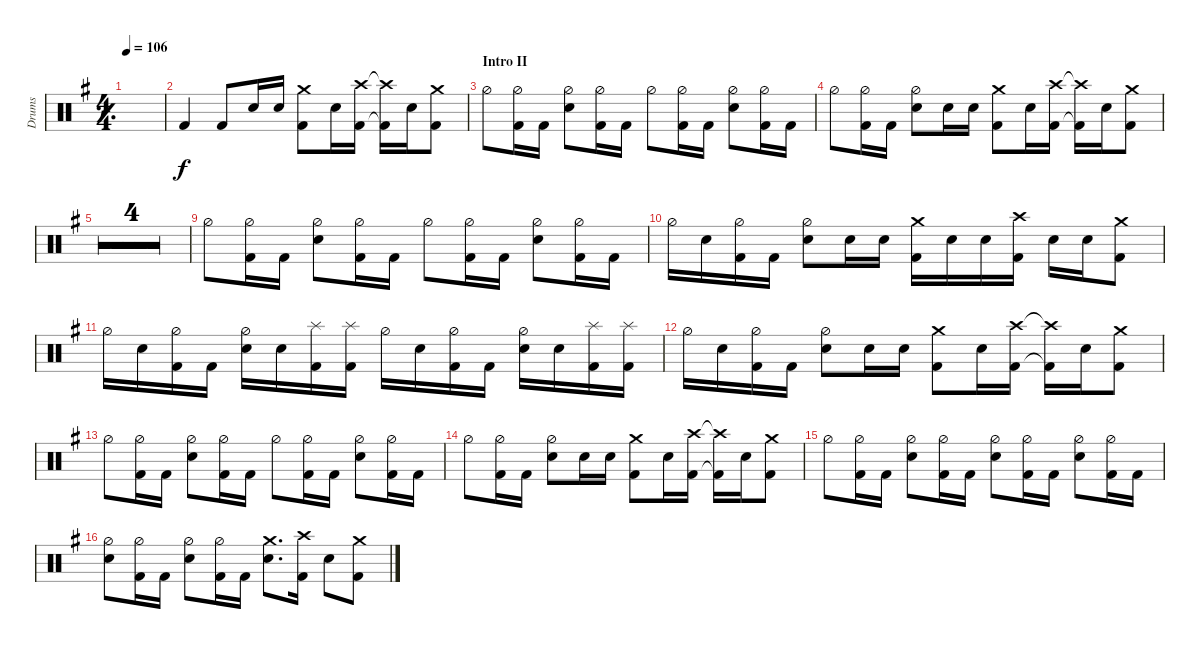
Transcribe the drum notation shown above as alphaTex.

\defaultSystemsLayout 4
\bracketExtendMode groupsimilarinstruments
\otherSystemsTrackNameOrientation horizontal
\track ("Drumkit" "Drums") {multiBarRest instrument percussion}
\staff {score}
\articulation defaults
\ts (4 4)
\tempo 106
\clef neutral
\simile simple
\ks g
|
\simile none "Kick (hit) 2"{acc forcenatural}.4 "Kick (hit) 2"{acc forcenatural}.8 "Snare (hit) 2"{acc forcenatural}.16 "Snare (hit) 2"{acc forcenatural}.16
("Kick (hit) 2"{acc forcenatural} "Crash medium (hit)"{acc forcenatural}).8 "Snare (hit) 2"{acc forcenatural}.16 ("Kick (hit) 2"{acc forcenatural} "Crash high (hit)"{acc forcenatural}).16 ("Kick (hit) 2"{t acc forcenatural} "Crash high (hit)"{t acc forcenatural}).16 "Snare (hit) 2"{acc forcenatural}.16 ("Kick (hit) 2"{acc forcenatural} "Crash medium (hit)"{acc forcenatural}).8 |
\section ("" "Intro II")
"Hi-Hat (half)"{acc forcenatural}.8 ("Hi-Hat (half)"{acc forcenatural} "Kick (hit) 2"{acc forcenatural}).16 "Kick (hit) 2"{acc forcenatural}.16 ("Snare (hit) 2"{acc forcenatural} "Hi-Hat (half)"{acc forcenatural}).8 ("Hi-Hat (half)"{acc forcenatural} "Kick (hit) 2"{acc forcenatural}).16 "Kick (hit) 2"{acc forcenatural}.16 "Hi-Hat (half)"{acc forcenatural}.8 ("Hi-Hat (half)"{acc forcenatural} "Kick (hit) 2"{acc forcenatural}).16 "Kick (hit) 2"{acc forcenatural}.16 ("Snare (hit) 2"{acc forcenatural} "Hi-Hat (half)"{acc forcenatural}).8 ("Hi-Hat (half)"{acc forcenatural} "Kick (hit) 2"{acc forcenatural}).16 "Kick (hit) 2"{acc forcenatural}.16 |
"Hi-Hat (half)"{acc forcenatural}.8 ("Hi-Hat (half)"{acc forcenatural} "Kick (hit) 2"{acc forcenatural}).16 "Kick (hit) 2"{acc forcenatural}.16 ("Snare (hit) 2"{acc forcenatural} "Hi-Hat (half)"{acc forcenatural}).8 "Snare (hit) 2"{acc forcenatural}.16 "Snare (hit) 2"{acc forcenatural}.16 ("Kick (hit) 2"{acc forcenatural} "Crash medium (hit)"{acc forcenatural}).8 "Snare (hit) 2"{acc forcenatural}.16 ("Kick (hit) 2"{acc forcenatural} "Crash high (hit)"{acc forcenatural}).16 ("Kick (hit) 2"{t acc forcenatural} "Crash high (hit)"{t acc forcenatural}).16 "Snare (hit) 2"{acc forcenatural}.16 ("Kick (hit) 2"{acc forcenatural} "Crash medium (hit)"{acc forcenatural}).8 |
\simile firstofdouble
|
\simile secondofdouble
|
\simile firstofdouble
|
\simile secondofdouble
|
\simile none "Hi-Hat (half)"{acc forcenatural}.8
("Hi-Hat (half)"{acc forcenatural} "Kick (hit) 2"{acc forcenatural}).16 "Kick (hit) 2"{acc forcenatural}.16 ("Snare (hit) 2"{acc forcenatural} "Hi-Hat (half)"{acc forcenatural}).8 ("Hi-Hat (half)"{acc forcenatural} "Kick (hit) 2"{acc forcenatural}).16 "Kick (hit) 2"{acc forcenatural}.16 "Hi-Hat (half)"{acc forcenatural}.8 ("Hi-Hat (half)"{acc forcenatural} "Kick (hit) 2"{acc forcenatural}).16 "Kick (hit) 2"{acc forcenatural}.16 ("Snare (hit) 2"{acc forcenatural} "Hi-Hat (half)"{acc forcenatural}).8 ("Hi-Hat (half)"{acc forcenatural} "Kick (hit) 2"{acc forcenatural}).16 "Kick (hit) 2"{acc forcenatural}.16 |
"Hi-Hat (half)"{acc forcenatural}.16 "Snare (hit) 2"{acc forcenatural}.16 ("Hi-Hat (half)"{acc forcenatural} "Kick (hit) 2"{acc forcenatural}).16 "Kick (hit) 2"{acc forcenatural}.16 ("Snare (hit) 2"{acc forcenatural} "Hi-Hat (half)"{acc forcenatural}).8 "Snare (hit) 2"{acc forcenatural}.16 "Snare (hit) 2"{acc forcenatural}.16 ("Kick (hit) 2"{acc forcenatural} "Crash medium (hit)"{acc forcenatural}).16 "Snare (hit) 2"{acc forcenatural}.16 "Snare (hit) 2"{acc forcenatural}.16 ("Kick (hit) 2"{acc forcenatural} "Crash high (hit)"{acc forcenatural}).16 "Snare (hit) 2"{acc forcenatural}.16 "Snare (hit) 2"{acc forcenatural}.16 ("Kick (hit) 2"{acc forcenatural} "Crash medium (hit)"{acc forcenatural}).8 |
"Hi-Hat (half)"{acc forcenatural}.16 "Snare (hit) 2"{acc forcenatural}.16 ("Hi-Hat (half)"{acc forcenatural} "Kick (hit) 2"{acc forcenatural}).16 "Kick (hit) 2"{acc forcenatural}.16 ("Snare (hit) 2"{acc forcenatural} "Hi-Hat (half)"{acc forcenatural}).16 "Snare (hit) 2"{acc forcenatural}.16 ("Kick (hit) 2"{acc forcenatural} "Splash (hit)"{acc forcenatural}).16 ("Kick (hit) 2"{acc forcenatural} "Splash (hit)"{acc forcenatural}).16 "Hi-Hat (half)"{acc forcenatural}.16 "Snare (hit) 2"{acc forcenatural}.16 ("Hi-Hat (half)"{acc forcenatural} "Kick (hit) 2"{acc forcenatural}).16 "Kick (hit) 2"{acc forcenatural}.16 ("Snare (hit) 2"{acc forcenatural} "Hi-Hat (half)"{acc forcenatural}).16 "Snare (hit) 2"{acc forcenatural}.16 ("Kick (hit) 2"{acc forcenatural} "Splash (hit)"{acc forcenatural}).16 ("Kick (hit) 2"{acc forcenatural} "Splash (hit)"{acc forcenatural}).16 |
"Hi-Hat (half)"{acc forcenatural}.16 "Snare (hit) 2"{acc forcenatural}.16 ("Hi-Hat (half)"{acc forcenatural} "Kick (hit) 2"{acc forcenatural}).16 "Kick (hit) 2"{acc forcenatural}.16 ("Snare (hit) 2"{acc forcenatural} "Hi-Hat (half)"{acc forcenatural}).8 "Snare (hit) 2"{acc forcenatural}.16 "Snare (hit) 2"{acc forcenatural}.16 ("Kick (hit) 2"{acc forcenatural} "Crash medium (hit)"{acc forcenatural}).8 "Snare (hit) 2"{acc forcenatural}.16 ("Kick (hit) 2"{acc forcenatural} "Crash high (hit)"{acc forcenatural}).16 ("Kick (hit) 2"{t acc forcenatural} "Crash high (hit)"{t acc forcenatural}).16 "Snare (hit) 2"{acc forcenatural}.16 ("Kick (hit) 2"{acc forcenatural} "Crash medium (hit)"{acc forcenatural}).8 |
"Hi-Hat (half)"{acc forcenatural}.8 ("Hi-Hat (half)"{acc forcenatural} "Kick (hit) 2"{acc forcenatural}).16 "Kick (hit) 2"{acc forcenatural}.16 ("Snare (hit) 2"{acc forcenatural} "Hi-Hat (half)"{acc forcenatural}).8 ("Hi-Hat (half)"{acc forcenatural} "Kick (hit) 2"{acc forcenatural}).16 "Kick (hit) 2"{acc forcenatural}.16 "Hi-Hat (half)"{acc forcenatural}.8 ("Hi-Hat (half)"{acc forcenatural} "Kick (hit) 2"{acc forcenatural}).16 "Kick (hit) 2"{acc forcenatural}.16 ("Snare (hit) 2"{acc forcenatural} "Hi-Hat (half)"{acc forcenatural}).8 ("Hi-Hat (half)"{acc forcenatural} "Kick (hit) 2"{acc forcenatural}).16 "Kick (hit) 2"{acc forcenatural}.16 |
"Hi-Hat (half)"{acc forcenatural}.8 ("Hi-Hat (half)"{acc forcenatural} "Kick (hit) 2"{acc forcenatural}).16 "Kick (hit) 2"{acc forcenatural}.16 ("Snare (hit) 2"{acc forcenatural} "Hi-Hat (half)"{acc forcenatural}).8 "Snare (hit) 2"{acc forcenatural}.16 "Snare (hit) 2"{acc forcenatural}.16 ("Kick (hit) 2"{acc forcenatural} "Crash medium (hit)"{acc forcenatural}).8 "Snare (hit) 2"{acc forcenatural}.16 ("Kick (hit) 2"{acc forcenatural} "Crash high (hit)"{acc forcenatural}).16 ("Kick (hit) 2"{t acc forcenatural} "Crash high (hit)"{t acc forcenatural}).16 "Snare (hit) 2"{acc forcenatural}.16 ("Kick (hit) 2"{acc forcenatural} "Crash medium (hit)"{acc forcenatural}).8 |
"Hi-Hat (half)"{acc forcenatural}.8 ("Hi-Hat (half)"{acc forcenatural} "Kick (hit) 2"{acc forcenatural}).16 "Kick (hit) 2"{acc forcenatural}.16 ("Snare (hit) 2"{acc forcenatural} "Hi-Hat (half)"{acc forcenatural}).8 ("Hi-Hat (half)"{acc forcenatural} "Kick (hit) 2"{acc forcenatural}).16 "Kick (hit) 2"{acc forcenatural}.16 ("Snare (hit) 2"{acc forcenatural} "Hi-Hat (half)"{acc forcenatural}).8 ("Hi-Hat (half)"{acc forcenatural} "Kick (hit) 2"{acc forcenatural}).16 "Kick (hit) 2"{acc forcenatural}.16 ("Snare (hit) 2"{acc forcenatural} "Hi-Hat (half)"{acc forcenatural}).8 ("Hi-Hat (half)"{acc forcenatural} "Kick (hit) 2"{acc forcenatural}).16 "Kick (hit) 2"{acc forcenatural}.16 |
("Snare (hit) 2"{acc forcenatural} "Hi-Hat (half)"{acc forcenatural}).8 ("Hi-Hat (half)"{acc forcenatural} "Kick (hit) 2"{acc forcenatural}).16 "Kick (hit) 2"{acc forcenatural}.16 ("Snare (hit) 2"{acc forcenatural} "Hi-Hat (half)"{acc forcenatural}).8 ("Hi-Hat (half)"{acc forcenatural} "Kick (hit) 2"{acc forcenatural}).16 "Kick (hit) 2"{acc forcenatural}.16 ("Snare (hit) 2"{acc forcenatural} "Crash medium (hit)"{acc forcenatural}).8{d} ("Kick (hit) 2"{acc forcenatural} "Crash high (hit)"{acc forcenatural}).16 "Snare (hit) 2"{acc forcenatural}.8 ("Kick (hit) 2"{acc forcenatural} "Crash medium (hit)"{acc forcenatural}).8
